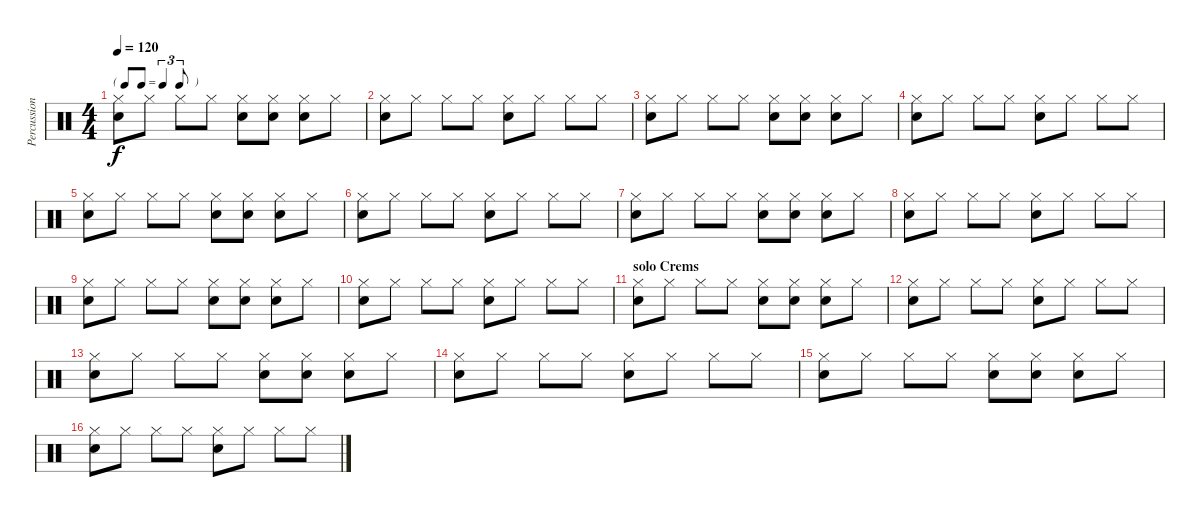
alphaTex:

\track ("Percussions" "Percussion") {instrument percussion}
\staff {score}
\articulation defaults
\ts (4 4)
\tf triplet8th
\tempo 120
\clef neutral
\ks c
("Electric Snare (hit)" "Hi-Hat (closed)").8{dy f} "Hi-Hat (closed)".8 "Hi-Hat (closed)".8 "Hi-Hat (closed)".8 ("Electric Snare (hit)" "Hi-Hat (closed)").8 ("Electric Snare (hit)" "Hi-Hat (closed)").8 ("Electric Snare (hit)" "Hi-Hat (closed)").8 "Hi-Hat (closed)".8 |
("Electric Snare (hit)" "Hi-Hat (closed)").8 "Hi-Hat (closed)".8 "Hi-Hat (closed)".8 "Hi-Hat (closed)".8 ("Electric Snare (hit)" "Hi-Hat (closed)").8 "Hi-Hat (closed)".8 "Hi-Hat (closed)".8 "Hi-Hat (closed)".8 |
("Electric Snare (hit)" "Hi-Hat (closed)").8 "Hi-Hat (closed)".8 "Hi-Hat (closed)".8 "Hi-Hat (closed)".8 ("Electric Snare (hit)" "Hi-Hat (closed)").8 ("Electric Snare (hit)" "Hi-Hat (closed)").8 ("Electric Snare (hit)" "Hi-Hat (closed)").8 "Hi-Hat (closed)".8 |
("Electric Snare (hit)" "Hi-Hat (closed)").8 "Hi-Hat (closed)".8 "Hi-Hat (closed)".8 "Hi-Hat (closed)".8 ("Electric Snare (hit)" "Hi-Hat (closed)").8 "Hi-Hat (closed)".8 "Hi-Hat (closed)".8 "Hi-Hat (closed)".8 |
("Electric Snare (hit)" "Hi-Hat (closed)").8 "Hi-Hat (closed)".8 "Hi-Hat (closed)".8 "Hi-Hat (closed)".8 ("Electric Snare (hit)" "Hi-Hat (closed)").8 ("Electric Snare (hit)" "Hi-Hat (closed)").8 ("Electric Snare (hit)" "Hi-Hat (closed)").8 "Hi-Hat (closed)".8 |
("Electric Snare (hit)" "Hi-Hat (closed)").8 "Hi-Hat (closed)".8 "Hi-Hat (closed)".8 "Hi-Hat (closed)".8 ("Electric Snare (hit)" "Hi-Hat (closed)").8 "Hi-Hat (closed)".8 "Hi-Hat (closed)".8 "Hi-Hat (closed)".8 |
("Electric Snare (hit)" "Hi-Hat (closed)").8 "Hi-Hat (closed)".8 "Hi-Hat (closed)".8 "Hi-Hat (closed)".8 ("Electric Snare (hit)" "Hi-Hat (closed)").8 ("Electric Snare (hit)" "Hi-Hat (closed)").8 ("Electric Snare (hit)" "Hi-Hat (closed)").8 "Hi-Hat (closed)".8 |
("Electric Snare (hit)" "Hi-Hat (closed)").8 "Hi-Hat (closed)".8 "Hi-Hat (closed)".8 "Hi-Hat (closed)".8 ("Electric Snare (hit)" "Hi-Hat (closed)").8 "Hi-Hat (closed)".8 "Hi-Hat (closed)".8 "Hi-Hat (closed)".8 |
("Electric Snare (hit)" "Hi-Hat (closed)").8 "Hi-Hat (closed)".8 "Hi-Hat (closed)".8 "Hi-Hat (closed)".8 ("Electric Snare (hit)" "Hi-Hat (closed)").8 ("Electric Snare (hit)" "Hi-Hat (closed)").8 ("Electric Snare (hit)" "Hi-Hat (closed)").8 "Hi-Hat (closed)".8 |
("Electric Snare (hit)" "Hi-Hat (closed)").8 "Hi-Hat (closed)".8 "Hi-Hat (closed)".8 "Hi-Hat (closed)".8 ("Electric Snare (hit)" "Hi-Hat (closed)").8 "Hi-Hat (closed)".8 "Hi-Hat (closed)".8 "Hi-Hat (closed)".8 |
\section ("" "solo Crems")
("Electric Snare (hit)" "Hi-Hat (closed)").8 "Hi-Hat (closed)".8 "Hi-Hat (closed)".8 "Hi-Hat (closed)".8 ("Electric Snare (hit)" "Hi-Hat (closed)").8 ("Electric Snare (hit)" "Hi-Hat (closed)").8 ("Electric Snare (hit)" "Hi-Hat (closed)").8 "Hi-Hat (closed)".8 |
("Electric Snare (hit)" "Hi-Hat (closed)").8 "Hi-Hat (closed)".8 "Hi-Hat (closed)".8 "Hi-Hat (closed)".8 ("Electric Snare (hit)" "Hi-Hat (closed)").8 "Hi-Hat (closed)".8 "Hi-Hat (closed)".8 "Hi-Hat (closed)".8 |
("Electric Snare (hit)" "Hi-Hat (closed)").8 "Hi-Hat (closed)".8 "Hi-Hat (closed)".8 "Hi-Hat (closed)".8 ("Electric Snare (hit)" "Hi-Hat (closed)").8 ("Electric Snare (hit)" "Hi-Hat (closed)").8 ("Electric Snare (hit)" "Hi-Hat (closed)").8 "Hi-Hat (closed)".8 |
("Electric Snare (hit)" "Hi-Hat (closed)").8 "Hi-Hat (closed)".8 "Hi-Hat (closed)".8 "Hi-Hat (closed)".8 ("Electric Snare (hit)" "Hi-Hat (closed)").8 "Hi-Hat (closed)".8 "Hi-Hat (closed)".8 "Hi-Hat (closed)".8 |
("Electric Snare (hit)" "Hi-Hat (closed)").8 "Hi-Hat (closed)".8 "Hi-Hat (closed)".8 "Hi-Hat (closed)".8 ("Electric Snare (hit)" "Hi-Hat (closed)").8 ("Electric Snare (hit)" "Hi-Hat (closed)").8 ("Electric Snare (hit)" "Hi-Hat (closed)").8 "Hi-Hat (closed)".8 |
("Electric Snare (hit)" "Hi-Hat (closed)").8 "Hi-Hat (closed)".8 "Hi-Hat (closed)".8 "Hi-Hat (closed)".8 ("Electric Snare (hit)" "Hi-Hat (closed)").8 "Hi-Hat (closed)".8 "Hi-Hat (closed)".8 "Hi-Hat (closed)".8
